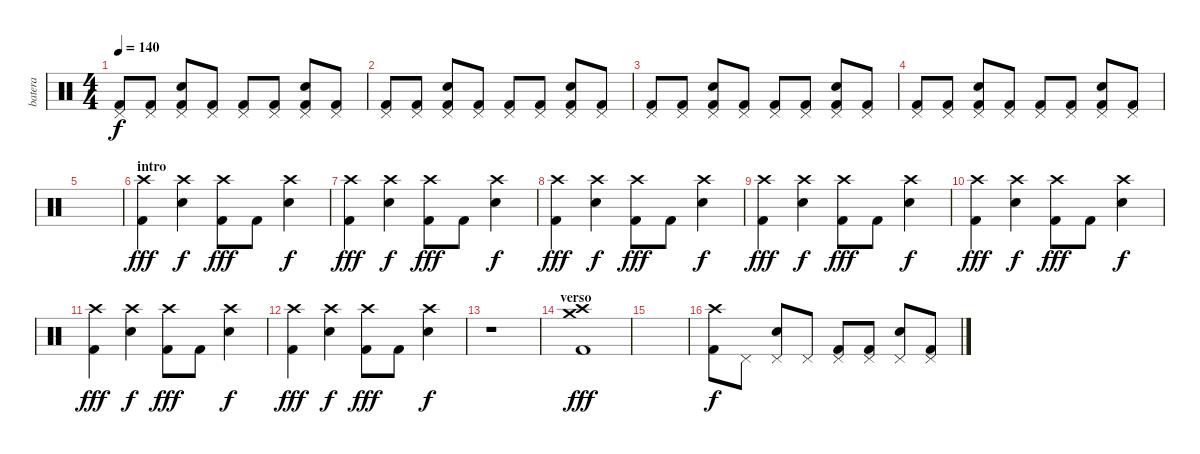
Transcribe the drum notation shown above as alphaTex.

\track ("batera" "batera") {instrument percussion}
\staff {score}
\articulation defaults
\ts (4 4)
\tempo 140
\clef neutral
\ks c
("Kick (hit) 2" "Pedal Hi-Hat (hit)").8{dy f} ("Kick (hit) 2" "Pedal Hi-Hat (hit)").8 ("Snare (hit) 2" "Kick (hit) 2" "Pedal Hi-Hat (hit)").8 ("Kick (hit) 2" "Pedal Hi-Hat (hit)").8 ("Kick (hit) 2" "Pedal Hi-Hat (hit)").8 ("Kick (hit) 2" "Pedal Hi-Hat (hit)").8 ("Snare (hit) 2" "Kick (hit) 2" "Pedal Hi-Hat (hit)").8 ("Kick (hit) 2" "Pedal Hi-Hat (hit)").8 |
("Kick (hit) 2" "Pedal Hi-Hat (hit)").8 ("Kick (hit) 2" "Pedal Hi-Hat (hit)").8 ("Snare (hit) 2" "Kick (hit) 2" "Pedal Hi-Hat (hit)").8 ("Kick (hit) 2" "Pedal Hi-Hat (hit)").8 ("Kick (hit) 2" "Pedal Hi-Hat (hit)").8 ("Kick (hit) 2" "Pedal Hi-Hat (hit)").8 ("Snare (hit) 2" "Kick (hit) 2" "Pedal Hi-Hat (hit)").8 ("Kick (hit) 2" "Pedal Hi-Hat (hit)").8 |
("Kick (hit) 2" "Pedal Hi-Hat (hit)").8 ("Kick (hit) 2" "Pedal Hi-Hat (hit)").8 ("Snare (hit) 2" "Kick (hit) 2" "Pedal Hi-Hat (hit)").8 ("Kick (hit) 2" "Pedal Hi-Hat (hit)").8 ("Kick (hit) 2" "Pedal Hi-Hat (hit)").8 ("Kick (hit) 2" "Pedal Hi-Hat (hit)").8 ("Snare (hit) 2" "Kick (hit) 2" "Pedal Hi-Hat (hit)").8 ("Kick (hit) 2" "Pedal Hi-Hat (hit)").8 |
("Kick (hit) 2" "Pedal Hi-Hat (hit)").8 ("Kick (hit) 2" "Pedal Hi-Hat (hit)").8 ("Snare (hit) 2" "Kick (hit) 2" "Pedal Hi-Hat (hit)").8 ("Kick (hit) 2" "Pedal Hi-Hat (hit)").8 ("Kick (hit) 2" "Pedal Hi-Hat (hit)").8 ("Kick (hit) 2" "Pedal Hi-Hat (hit)").8 ("Snare (hit) 2" "Kick (hit) 2" "Pedal Hi-Hat (hit)").8 ("Kick (hit) 2" "Pedal Hi-Hat (hit)").8 |
|
\section ("" "intro")
("Crash high (hit)" "Kick (hit) 2").4{dy fff} ("Crash high (hit)" "Snare (hit) 2").4{dy f} ("Crash high (hit)" "Kick (hit) 2").8{dy fff} "Kick (hit) 2".8 ("Crash high (hit)" "Snare (hit) 2").4{dy f} |
("Crash high (hit)" "Kick (hit) 2").4{dy fff} ("Crash high (hit)" "Snare (hit) 2").4{dy f} ("Crash high (hit)" "Kick (hit) 2").8{dy fff} "Kick (hit) 2".8 ("Crash high (hit)" "Snare (hit) 2").4{dy f} |
("Crash high (hit)" "Kick (hit) 2").4{dy fff} ("Crash high (hit)" "Snare (hit) 2").4{dy f} ("Crash high (hit)" "Kick (hit) 2").8{dy fff} "Kick (hit) 2".8 ("Crash high (hit)" "Snare (hit) 2").4{dy f} |
("Crash high (hit)" "Kick (hit) 2").4{dy fff} ("Crash high (hit)" "Snare (hit) 2").4{dy f} ("Crash high (hit)" "Kick (hit) 2").8{dy fff} "Kick (hit) 2".8 ("Crash high (hit)" "Snare (hit) 2").4{dy f} |
("Crash high (hit)" "Kick (hit) 2").4{dy fff} ("Crash high (hit)" "Snare (hit) 2").4{dy f} ("Crash high (hit)" "Kick (hit) 2").8{dy fff} "Kick (hit) 2".8 ("Crash high (hit)" "Snare (hit) 2").4{dy f} |
("Crash high (hit)" "Kick (hit) 2").4{dy fff} ("Crash high (hit)" "Snare (hit) 2").4{dy f} ("Crash high (hit)" "Kick (hit) 2").8{dy fff} "Kick (hit) 2".8 ("Crash high (hit)" "Snare (hit) 2").4{dy f} |
("Crash high (hit)" "Kick (hit) 2").4{dy fff} ("Crash high (hit)" "Snare (hit) 2").4{dy f} ("Crash high (hit)" "Kick (hit) 2").8{dy fff} "Kick (hit) 2".8 ("Crash high (hit)" "Snare (hit) 2").4{dy f} |
r.1 |
\section ("" "verso")
("Crash high (hit)" "Crash medium (hit)" "Kick (hit) 2").1{dy fff} |
|
("Crash high (hit)" "Kick (hit) 2").8{dy f} "Pedal Hi-Hat (hit)".8 ("Snare (hit) 2" "Pedal Hi-Hat (hit)").8 "Pedal Hi-Hat (hit)".8 ("Kick (hit) 2" "Pedal Hi-Hat (hit)").8 ("Kick (hit) 2" "Pedal Hi-Hat (hit)").8 ("Snare (hit) 2" "Pedal Hi-Hat (hit)").8 ("Kick (hit) 2" "Pedal Hi-Hat (hit)").8
